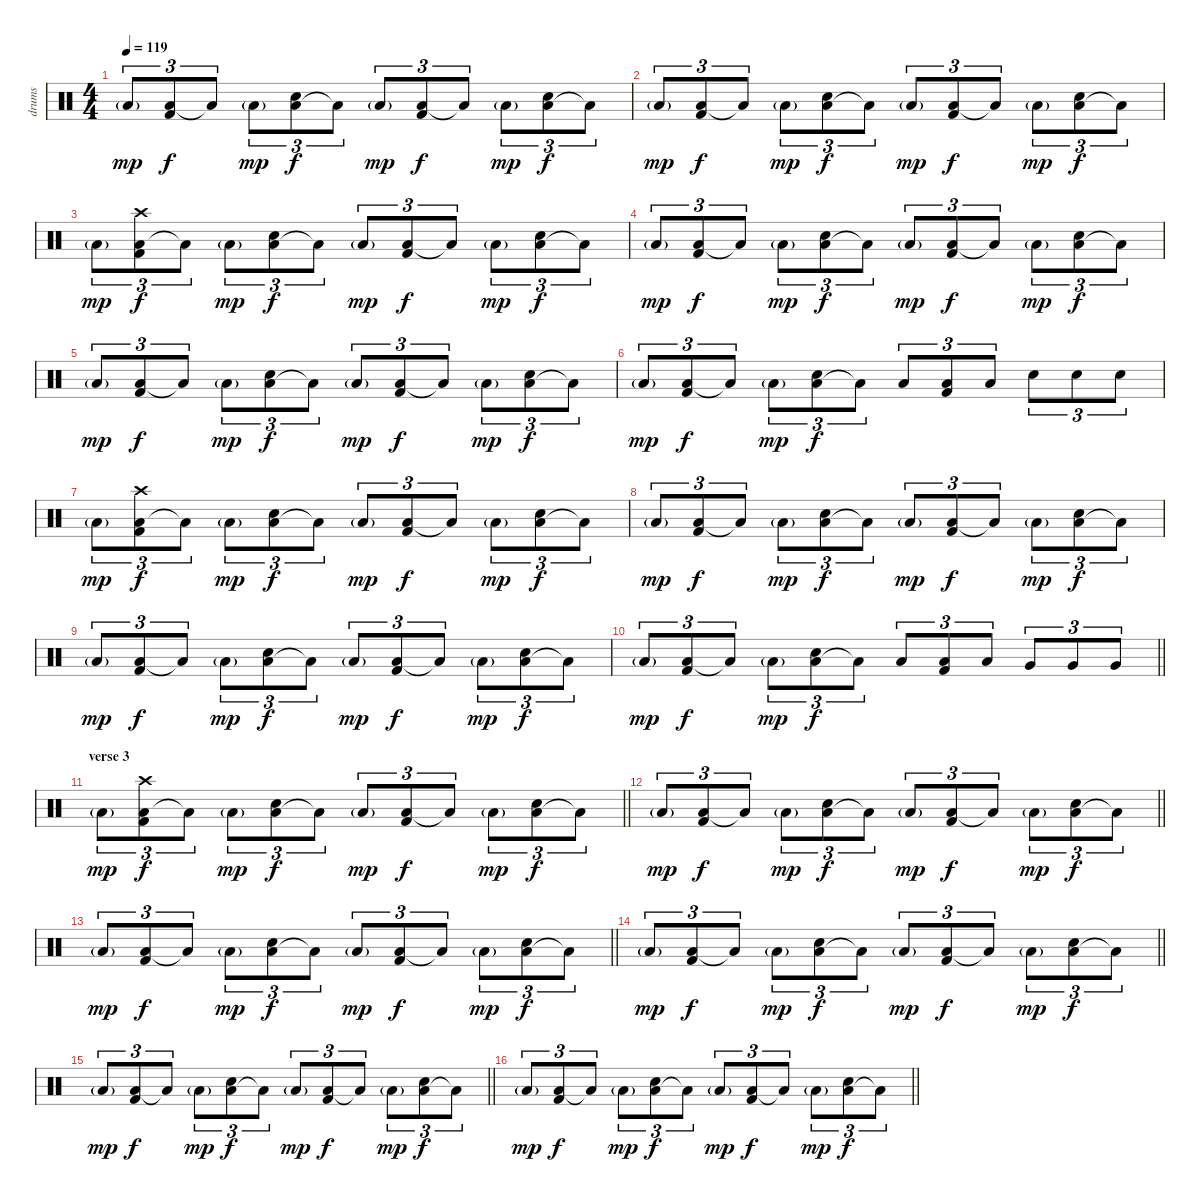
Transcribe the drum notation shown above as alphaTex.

\track ("drums" "drums") {instrument percussion}
\staff {score}
\articulation defaults
\ts (4 4)
\tempo 119
\clef neutral
\ks c "Low Floor Tom (hit)"{g}.8{tu (3 2) dy mp}
("Low Floor Tom (hit)" "Kick (hit) 2").8{tu (3 2) dy f} "Low Floor Tom (hit)"{t}.8{tu (3 2)} "Low Floor Tom (hit)"{g}.8{tu (3 2) dy mp} ("Low Floor Tom (hit)" "Electric Snare (hit)").8{tu (3 2) dy f} "Low Floor Tom (hit)"{t}.8{tu (3 2)} "Low Floor Tom (hit)"{g}.8{tu (3 2) dy mp} ("Low Floor Tom (hit)" "Kick (hit) 2").8{tu (3 2) dy f} "Low Floor Tom (hit)"{t}.8{tu (3 2)} "Low Floor Tom (hit)"{g}.8{tu (3 2) dy mp} ("Low Floor Tom (hit)" "Electric Snare (hit)").8{tu (3 2) dy f} "Low Floor Tom (hit)"{t}.8{tu (3 2)} |
"Low Floor Tom (hit)"{g}.8{tu (3 2) dy mp} ("Low Floor Tom (hit)" "Kick (hit) 2").8{tu (3 2) dy f} "Low Floor Tom (hit)"{t}.8{tu (3 2)} "Low Floor Tom (hit)"{g}.8{tu (3 2) dy mp} ("Low Floor Tom (hit)" "Electric Snare (hit)").8{tu (3 2) dy f} "Low Floor Tom (hit)"{t}.8{tu (3 2)} "Low Floor Tom (hit)"{g}.8{tu (3 2) dy mp} ("Low Floor Tom (hit)" "Kick (hit) 2").8{tu (3 2) dy f} "Low Floor Tom (hit)"{t}.8{tu (3 2)} "Low Floor Tom (hit)"{g}.8{tu (3 2) dy mp} ("Low Floor Tom (hit)" "Electric Snare (hit)").8{tu (3 2) dy f} "Low Floor Tom (hit)"{t}.8{tu (3 2)} |
"Low Floor Tom (hit)"{g}.8{tu (3 2) dy mp} ("Low Floor Tom (hit)" "Kick (hit) 2" "Crash high (hit)").8{tu (3 2) dy f} "Low Floor Tom (hit)"{t}.8{tu (3 2)} "Low Floor Tom (hit)"{g}.8{tu (3 2) dy mp} ("Low Floor Tom (hit)" "Electric Snare (hit)").8{tu (3 2) dy f} "Low Floor Tom (hit)"{t}.8{tu (3 2)} "Low Floor Tom (hit)"{g}.8{tu (3 2) dy mp} ("Low Floor Tom (hit)" "Kick (hit) 2").8{tu (3 2) dy f} "Low Floor Tom (hit)"{t}.8{tu (3 2)} "Low Floor Tom (hit)"{g}.8{tu (3 2) dy mp} ("Low Floor Tom (hit)" "Electric Snare (hit)").8{tu (3 2) dy f} "Low Floor Tom (hit)"{t}.8{tu (3 2)} |
"Low Floor Tom (hit)"{g}.8{tu (3 2) dy mp} ("Low Floor Tom (hit)" "Kick (hit) 2").8{tu (3 2) dy f} "Low Floor Tom (hit)"{t}.8{tu (3 2)} "Low Floor Tom (hit)"{g}.8{tu (3 2) dy mp} ("Low Floor Tom (hit)" "Electric Snare (hit)").8{tu (3 2) dy f} "Low Floor Tom (hit)"{t}.8{tu (3 2)} "Low Floor Tom (hit)"{g}.8{tu (3 2) dy mp} ("Low Floor Tom (hit)" "Kick (hit) 2").8{tu (3 2) dy f} "Low Floor Tom (hit)"{t}.8{tu (3 2)} "Low Floor Tom (hit)"{g}.8{tu (3 2) dy mp} ("Low Floor Tom (hit)" "Electric Snare (hit)").8{tu (3 2) dy f} "Low Floor Tom (hit)"{t}.8{tu (3 2)} |
"Low Floor Tom (hit)"{g}.8{tu (3 2) dy mp} ("Low Floor Tom (hit)" "Kick (hit) 2").8{tu (3 2) dy f} "Low Floor Tom (hit)"{t}.8{tu (3 2)} "Low Floor Tom (hit)"{g}.8{tu (3 2) dy mp} ("Low Floor Tom (hit)" "Electric Snare (hit)").8{tu (3 2) dy f} "Low Floor Tom (hit)"{t}.8{tu (3 2)} "Low Floor Tom (hit)"{g}.8{tu (3 2) dy mp} ("Low Floor Tom (hit)" "Kick (hit) 2").8{tu (3 2) dy f} "Low Floor Tom (hit)"{t}.8{tu (3 2)} "Low Floor Tom (hit)"{g}.8{tu (3 2) dy mp} ("Low Floor Tom (hit)" "Electric Snare (hit)").8{tu (3 2) dy f} "Low Floor Tom (hit)"{t}.8{tu (3 2)} |
"Low Floor Tom (hit)"{g}.8{tu (3 2) dy mp} ("Low Floor Tom (hit)" "Kick (hit) 2").8{tu (3 2) dy f} "Low Floor Tom (hit)"{t}.8{tu (3 2)} "Low Floor Tom (hit)"{g}.8{tu (3 2) dy mp} ("Low Floor Tom (hit)" "Electric Snare (hit)").8{tu (3 2) dy f} "Low Floor Tom (hit)"{t}.8{tu (3 2)} "Low Floor Tom (hit)".8{tu (3 2)} ("Low Floor Tom (hit)" "Kick (hit) 2").8{tu (3 2)} "Low Floor Tom (hit)".8{tu (3 2)} "Electric Snare (hit)".8{tu (3 2)} "Electric Snare (hit)".8{tu (3 2)} "Electric Snare (hit)".8{tu (3 2)} |
"Low Floor Tom (hit)"{g}.8{tu (3 2) dy mp} ("Low Floor Tom (hit)" "Kick (hit) 2" "Crash high (hit)").8{tu (3 2) dy f} "Low Floor Tom (hit)"{t}.8{tu (3 2)} "Low Floor Tom (hit)"{g}.8{tu (3 2) dy mp} ("Low Floor Tom (hit)" "Electric Snare (hit)").8{tu (3 2) dy f} "Low Floor Tom (hit)"{t}.8{tu (3 2)} "Low Floor Tom (hit)"{g}.8{tu (3 2) dy mp} ("Low Floor Tom (hit)" "Kick (hit) 2").8{tu (3 2) dy f} "Low Floor Tom (hit)"{t}.8{tu (3 2)} "Low Floor Tom (hit)"{g}.8{tu (3 2) dy mp} ("Low Floor Tom (hit)" "Electric Snare (hit)").8{tu (3 2) dy f} "Low Floor Tom (hit)"{t}.8{tu (3 2)} |
"Low Floor Tom (hit)"{g}.8{tu (3 2) dy mp} ("Low Floor Tom (hit)" "Kick (hit) 2").8{tu (3 2) dy f} "Low Floor Tom (hit)"{t}.8{tu (3 2)} "Low Floor Tom (hit)"{g}.8{tu (3 2) dy mp} ("Low Floor Tom (hit)" "Electric Snare (hit)").8{tu (3 2) dy f} "Low Floor Tom (hit)"{t}.8{tu (3 2)} "Low Floor Tom (hit)"{g}.8{tu (3 2) dy mp} ("Low Floor Tom (hit)" "Kick (hit) 2").8{tu (3 2) dy f} "Low Floor Tom (hit)"{t}.8{tu (3 2)} "Low Floor Tom (hit)"{g}.8{tu (3 2) dy mp} ("Low Floor Tom (hit)" "Electric Snare (hit)").8{tu (3 2) dy f} "Low Floor Tom (hit)"{t}.8{tu (3 2)} |
"Low Floor Tom (hit)"{g}.8{tu (3 2) dy mp} ("Low Floor Tom (hit)" "Kick (hit) 2").8{tu (3 2) dy f} "Low Floor Tom (hit)"{t}.8{tu (3 2)} "Low Floor Tom (hit)"{g}.8{tu (3 2) dy mp} ("Low Floor Tom (hit)" "Electric Snare (hit)").8{tu (3 2) dy f} "Low Floor Tom (hit)"{t}.8{tu (3 2)} "Low Floor Tom (hit)"{g}.8{tu (3 2) dy mp} ("Low Floor Tom (hit)" "Kick (hit) 2").8{tu (3 2) dy f} "Low Floor Tom (hit)"{t}.8{tu (3 2)} "Low Floor Tom (hit)"{g}.8{tu (3 2) dy mp} ("Low Floor Tom (hit)" "Electric Snare (hit)").8{tu (3 2) dy f} "Low Floor Tom (hit)"{t}.8{tu (3 2)} |
\barLineRight lightlight "Low Floor Tom (hit)"{g}.8{tu (3 2) dy mp}
("Low Floor Tom (hit)" "Kick (hit) 2").8{tu (3 2) dy f} "Low Floor Tom (hit)"{t}.8{tu (3 2)} "Low Floor Tom (hit)"{g}.8{tu (3 2) dy mp} ("Low Floor Tom (hit)" "Electric Snare (hit)").8{tu (3 2) dy f} "Low Floor Tom (hit)"{t}.8{tu (3 2)} "Low Floor Tom (hit)".8{tu (3 2)} ("Low Floor Tom (hit)" "Kick (hit) 2").8{tu (3 2)} "Low Floor Tom (hit)".8{tu (3 2)} "Very Low Tom (hit)".8{tu (3 2)} "Very Low Tom (hit)".8{tu (3 2)} "Very Low Tom (hit)".8{tu (3 2)} |
\section ("" "verse 3")
\barLineRight lightlight "Low Floor Tom (hit)"{g}.8{tu (3 2) dy mp}
("Low Floor Tom (hit)" "Kick (hit) 2" "Crash high (hit)").8{tu (3 2) dy f} "Low Floor Tom (hit)"{t}.8{tu (3 2)} "Low Floor Tom (hit)"{g}.8{tu (3 2) dy mp} ("Low Floor Tom (hit)" "Electric Snare (hit)").8{tu (3 2) dy f} "Low Floor Tom (hit)"{t}.8{tu (3 2)} "Low Floor Tom (hit)"{g}.8{tu (3 2) dy mp} ("Low Floor Tom (hit)" "Kick (hit) 2").8{tu (3 2) dy f} "Low Floor Tom (hit)"{t}.8{tu (3 2)} "Low Floor Tom (hit)"{g}.8{tu (3 2) dy mp} ("Low Floor Tom (hit)" "Electric Snare (hit)").8{tu (3 2) dy f} "Low Floor Tom (hit)"{t}.8{tu (3 2)} |
\barLineRight lightlight "Low Floor Tom (hit)"{g}.8{tu (3 2) dy mp}
("Low Floor Tom (hit)" "Kick (hit) 2").8{tu (3 2) dy f} "Low Floor Tom (hit)"{t}.8{tu (3 2)} "Low Floor Tom (hit)"{g}.8{tu (3 2) dy mp} ("Low Floor Tom (hit)" "Electric Snare (hit)").8{tu (3 2) dy f} "Low Floor Tom (hit)"{t}.8{tu (3 2)} "Low Floor Tom (hit)"{g}.8{tu (3 2) dy mp} ("Low Floor Tom (hit)" "Kick (hit) 2").8{tu (3 2) dy f} "Low Floor Tom (hit)"{t}.8{tu (3 2)} "Low Floor Tom (hit)"{g}.8{tu (3 2) dy mp} ("Low Floor Tom (hit)" "Electric Snare (hit)").8{tu (3 2) dy f} "Low Floor Tom (hit)"{t}.8{tu (3 2)} |
\barLineRight lightlight "Low Floor Tom (hit)"{g}.8{tu (3 2) dy mp}
("Low Floor Tom (hit)" "Kick (hit) 2").8{tu (3 2) dy f} "Low Floor Tom (hit)"{t}.8{tu (3 2)} "Low Floor Tom (hit)"{g}.8{tu (3 2) dy mp} ("Low Floor Tom (hit)" "Electric Snare (hit)").8{tu (3 2) dy f} "Low Floor Tom (hit)"{t}.8{tu (3 2)} "Low Floor Tom (hit)"{g}.8{tu (3 2) dy mp} ("Low Floor Tom (hit)" "Kick (hit) 2").8{tu (3 2) dy f} "Low Floor Tom (hit)"{t}.8{tu (3 2)} "Low Floor Tom (hit)"{g}.8{tu (3 2) dy mp} ("Low Floor Tom (hit)" "Electric Snare (hit)").8{tu (3 2) dy f} "Low Floor Tom (hit)"{t}.8{tu (3 2)} |
\barLineRight lightlight "Low Floor Tom (hit)"{g}.8{tu (3 2) dy mp}
("Low Floor Tom (hit)" "Kick (hit) 2").8{tu (3 2) dy f} "Low Floor Tom (hit)"{t}.8{tu (3 2)} "Low Floor Tom (hit)"{g}.8{tu (3 2) dy mp} ("Low Floor Tom (hit)" "Electric Snare (hit)").8{tu (3 2) dy f} "Low Floor Tom (hit)"{t}.8{tu (3 2)} "Low Floor Tom (hit)"{g}.8{tu (3 2) dy mp} ("Low Floor Tom (hit)" "Kick (hit) 2").8{tu (3 2) dy f} "Low Floor Tom (hit)"{t}.8{tu (3 2)} "Low Floor Tom (hit)"{g}.8{tu (3 2) dy mp} ("Low Floor Tom (hit)" "Electric Snare (hit)").8{tu (3 2) dy f} "Low Floor Tom (hit)"{t}.8{tu (3 2)} |
\barLineRight lightlight "Low Floor Tom (hit)"{g}.8{tu (3 2) dy mp}
("Low Floor Tom (hit)" "Kick (hit) 2").8{tu (3 2) dy f} "Low Floor Tom (hit)"{t}.8{tu (3 2)} "Low Floor Tom (hit)"{g}.8{tu (3 2) dy mp} ("Low Floor Tom (hit)" "Electric Snare (hit)").8{tu (3 2) dy f} "Low Floor Tom (hit)"{t}.8{tu (3 2)} "Low Floor Tom (hit)"{g}.8{tu (3 2) dy mp} ("Low Floor Tom (hit)" "Kick (hit) 2").8{tu (3 2) dy f} "Low Floor Tom (hit)"{t}.8{tu (3 2)} "Low Floor Tom (hit)"{g}.8{tu (3 2) dy mp} ("Low Floor Tom (hit)" "Electric Snare (hit)").8{tu (3 2) dy f} "Low Floor Tom (hit)"{t}.8{tu (3 2)} |
\barLineRight lightlight "Low Floor Tom (hit)"{g}.8{tu (3 2) dy mp}
("Low Floor Tom (hit)" "Kick (hit) 2").8{tu (3 2) dy f} "Low Floor Tom (hit)"{t}.8{tu (3 2)} "Low Floor Tom (hit)"{g}.8{tu (3 2) dy mp} ("Low Floor Tom (hit)" "Electric Snare (hit)").8{tu (3 2) dy f} "Low Floor Tom (hit)"{t}.8{tu (3 2)} "Low Floor Tom (hit)"{g}.8{tu (3 2) dy mp} ("Low Floor Tom (hit)" "Kick (hit) 2").8{tu (3 2) dy f} "Low Floor Tom (hit)"{t}.8{tu (3 2)} "Low Floor Tom (hit)"{g}.8{tu (3 2) dy mp} ("Low Floor Tom (hit)" "Electric Snare (hit)").8{tu (3 2) dy f} "Low Floor Tom (hit)"{t}.8{tu (3 2)}
